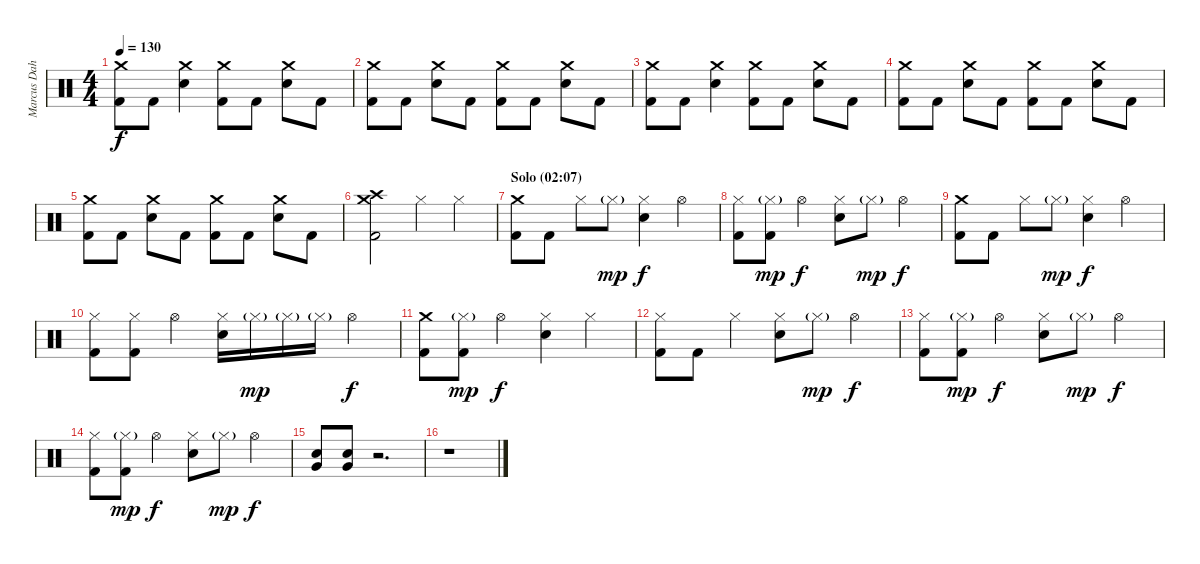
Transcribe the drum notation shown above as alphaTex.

\track ("Marcus Dahlström" "Marcus Dah") {instrument percussion}
\staff {score}
\articulation defaults
\ts (4 4)
\tempo 130
\clef neutral
\ks c
("Crash medium (hit)" "Kick (hit) 2").8{dy f} "Kick (hit) 2".8 ("Crash medium (hit)" "Electric Snare (hit)").4 ("Crash medium (hit)" "Kick (hit) 2").8 "Kick (hit) 2".8 ("Crash medium (hit)" "Electric Snare (hit)").8 "Kick (hit) 2".8 |
("Crash medium (hit)" "Kick (hit) 2").8 "Kick (hit) 2".8 ("Crash medium (hit)" "Electric Snare (hit)").8 "Kick (hit) 2".8 ("Crash medium (hit)" "Kick (hit) 2").8 "Kick (hit) 2".8 ("Crash medium (hit)" "Electric Snare (hit)").8 "Kick (hit) 2".8 |
("Crash medium (hit)" "Kick (hit) 2").8 "Kick (hit) 2".8 ("Crash medium (hit)" "Electric Snare (hit)").4 ("Crash medium (hit)" "Kick (hit) 2").8 "Kick (hit) 2".8 ("Crash medium (hit)" "Electric Snare (hit)").8 "Kick (hit) 2".8 |
("Crash medium (hit)" "Kick (hit) 2").8 "Kick (hit) 2".8 ("Crash medium (hit)" "Electric Snare (hit)").8 "Kick (hit) 2".8 ("Crash medium (hit)" "Kick (hit) 2").8 "Kick (hit) 2".8 ("Crash medium (hit)" "Electric Snare (hit)").8 "Kick (hit) 2".8 |
("Crash medium (hit)" "Kick (hit) 2").8 "Kick (hit) 2".8 ("Crash medium (hit)" "Electric Snare (hit)").8 "Kick (hit) 2".8 ("Crash medium (hit)" "Kick (hit) 2").8 "Kick (hit) 2".8 ("Crash medium (hit)" "Electric Snare (hit)").8 "Kick (hit) 2".8 |
("Crash high (hit)" "Crash medium (hit)" "Kick (hit) 2").2 "Hi-Hat (closed)".4 "Hi-Hat (closed)".4 |
\section ("" "Solo (02:07)")
("Crash medium (hit)" "Kick (hit) 2").8 "Kick (hit) 2".8 "Hi-Hat (closed)".8 "Hi-Hat (closed)"{g}.8{dy mp} ("Hi-Hat (closed)" "Electric Snare (hit)").4{dy f} "Hi-Hat (open)".4 |
("Hi-Hat (closed)" "Kick (hit) 2").8 ("Hi-Hat (closed)"{g} "Kick (hit) 2").8{dy mp} "Hi-Hat (open)".4{dy f} ("Hi-Hat (closed)" "Electric Snare (hit)").8 "Hi-Hat (closed)"{g}.8{dy mp} "Hi-Hat (open)".4{dy f} |
("Crash medium (hit)" "Kick (hit) 2").8 "Kick (hit) 2".8 "Hi-Hat (closed)".8 "Hi-Hat (closed)"{g}.8{dy mp} ("Hi-Hat (closed)" "Electric Snare (hit)").4{dy f} "Hi-Hat (open)".4 |
("Hi-Hat (closed)" "Kick (hit) 2").8 ("Hi-Hat (closed)" "Kick (hit) 2").8 "Hi-Hat (open)".4 ("Hi-Hat (closed)" "Electric Snare (hit)").16 "Hi-Hat (closed)"{g}.16{dy mp} "Hi-Hat (closed)"{g}.16 "Hi-Hat (closed)"{g}.16 "Hi-Hat (open)".4{dy f} |
("Crash medium (hit)" "Kick (hit) 2").8 ("Hi-Hat (closed)"{g} "Kick (hit) 2").8{dy mp} "Hi-Hat (open)".4{dy f} ("Hi-Hat (closed)" "Electric Snare (hit)").4 "Hi-Hat (closed)".4 |
("Hi-Hat (closed)" "Kick (hit) 2").8 "Kick (hit) 2".8 "Hi-Hat (closed)".4 ("Hi-Hat (closed)" "Electric Snare (hit)").8 "Hi-Hat (closed)"{g}.8{dy mp} "Hi-Hat (open)".4{dy f} |
("Hi-Hat (closed)" "Kick (hit) 2").8 ("Hi-Hat (closed)"{g} "Kick (hit) 2").8{dy mp} "Hi-Hat (open)".4{dy f} ("Hi-Hat (closed)" "Electric Snare (hit)").8 "Hi-Hat (closed)"{g}.8{dy mp} "Hi-Hat (open)".4{dy f} |
("Hi-Hat (closed)" "Kick (hit) 2").8 ("Hi-Hat (closed)"{g} "Kick (hit) 2").8{dy mp} "Hi-Hat (open)".4{dy f} ("Hi-Hat (closed)" "Electric Snare (hit)").8 "Hi-Hat (closed)"{g}.8{dy mp} "Hi-Hat (open)".4{dy f} |
("Very Low Tom (hit)" "Electric Snare (hit)").8 ("Very Low Tom (hit)" "Electric Snare (hit)").8 r.2{d} |
r.1
